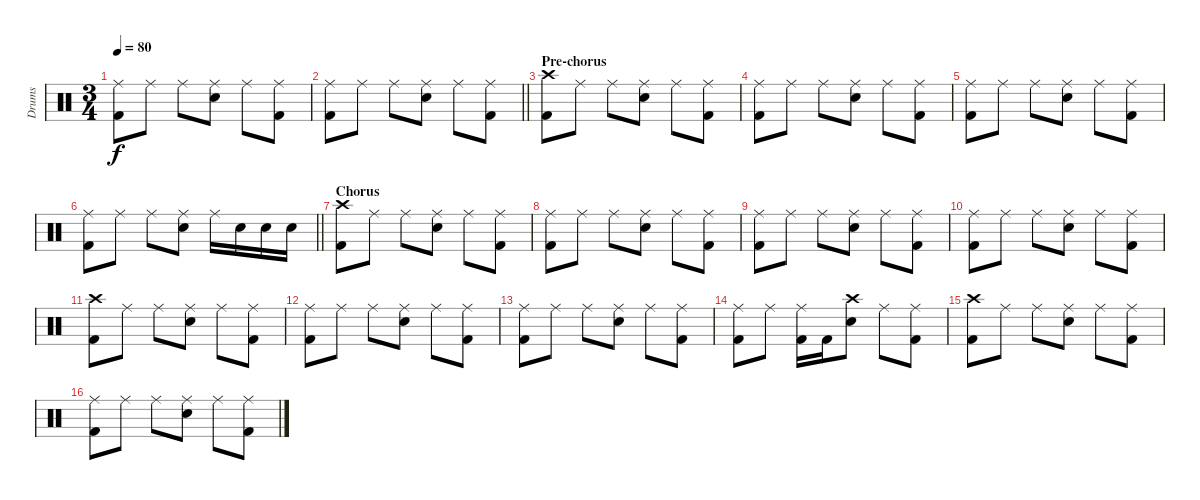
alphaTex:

\track ("Drums" "Drums") {instrument percussion}
\staff {score}
\articulation defaults
\ts (3 4)
\tempo 80
\clef neutral
\ks c
("Ride (middle)" "Kick (hit) 2").8{dy f} "Ride (middle)".8 "Ride (middle)".8 ("Ride (middle)" "Electric Snare (hit)").8 "Ride (middle)".8 ("Ride (middle)" "Kick (hit) 2").8 |
\barLineRight lightlight
("Ride (middle)" "Kick (hit) 2").8 "Ride (middle)".8 "Ride (middle)".8 ("Ride (middle)" "Electric Snare (hit)").8 "Ride (middle)".8 ("Ride (middle)" "Kick (hit) 2").8 |
\section ("" "Pre-chorus")
("Crash high (hit)" "Kick (hit) 2").8 "Ride (middle)".8 "Ride (middle)".8 ("Ride (middle)" "Electric Snare (hit)").8 "Ride (middle)".8 ("Ride (middle)" "Kick (hit) 2").8 |
("Ride (middle)" "Kick (hit) 2").8 "Ride (middle)".8 "Ride (middle)".8 ("Ride (middle)" "Electric Snare (hit)").8 "Ride (middle)".8 ("Ride (middle)" "Kick (hit) 2").8 |
("Ride (middle)" "Kick (hit) 2").8 "Ride (middle)".8 "Ride (middle)".8 ("Ride (middle)" "Electric Snare (hit)").8 "Ride (middle)".8 ("Ride (middle)" "Kick (hit) 2").8 |
\barLineRight lightlight
("Ride (middle)" "Kick (hit) 2").8 "Ride (middle)".8 "Ride (middle)".8 ("Ride (middle)" "Electric Snare (hit)").8 "Ride (middle)".16 "Electric Snare (hit)".16 "Electric Snare (hit)".16 "Electric Snare (hit)".16 |
\section ("" "Chorus")
("Crash high (hit)" "Kick (hit) 2").8 "Ride (middle)".8 "Ride (middle)".8 ("Ride (middle)" "Electric Snare (hit)").8 "Ride (middle)".8 ("Ride (middle)" "Kick (hit) 2").8 |
("Ride (middle)" "Kick (hit) 2").8 "Ride (middle)".8 "Ride (middle)".8 ("Ride (middle)" "Electric Snare (hit)").8 "Ride (middle)".8 ("Ride (middle)" "Kick (hit) 2").8 |
("Ride (middle)" "Kick (hit) 2").8 "Ride (middle)".8 "Ride (middle)".8 ("Ride (middle)" "Electric Snare (hit)").8 "Ride (middle)".8 ("Ride (middle)" "Kick (hit) 2").8 |
("Ride (middle)" "Kick (hit) 2").8 "Ride (middle)".8 "Ride (middle)".8 ("Ride (middle)" "Electric Snare (hit)").8 "Ride (middle)".8 ("Ride (middle)" "Kick (hit) 2").8 |
("Crash high (hit)" "Kick (hit) 2").8 "Ride (middle)".8 "Ride (middle)".8 ("Ride (middle)" "Electric Snare (hit)").8 "Ride (middle)".8 ("Ride (middle)" "Kick (hit) 2").8 |
("Ride (middle)" "Kick (hit) 2").8 "Ride (middle)".8 "Ride (middle)".8 ("Ride (middle)" "Electric Snare (hit)").8 "Ride (middle)".8 ("Ride (middle)" "Kick (hit) 2").8 |
("Ride (middle)" "Kick (hit) 2").8 "Ride (middle)".8 "Ride (middle)".8 ("Ride (middle)" "Electric Snare (hit)").8 "Ride (middle)".8 ("Ride (middle)" "Kick (hit) 2").8 |
("Ride (middle)" "Kick (hit) 2").8 "Ride (middle)".8 ("Ride (middle)" "Kick (hit) 2").16 "Kick (hit) 2".16 ("Crash high (hit)" "Electric Snare (hit)").8 "Ride (middle)".8 ("Ride (middle)" "Kick (hit) 2").8 |
("Crash high (hit)" "Kick (hit) 2").8 "Ride (middle)".8 "Ride (middle)".8 ("Ride (middle)" "Electric Snare (hit)").8 "Ride (middle)".8 ("Ride (middle)" "Kick (hit) 2").8 |
("Ride (middle)" "Kick (hit) 2").8 "Ride (middle)".8 "Ride (middle)".8 ("Ride (middle)" "Electric Snare (hit)").8 "Ride (middle)".8 ("Ride (middle)" "Kick (hit) 2").8
